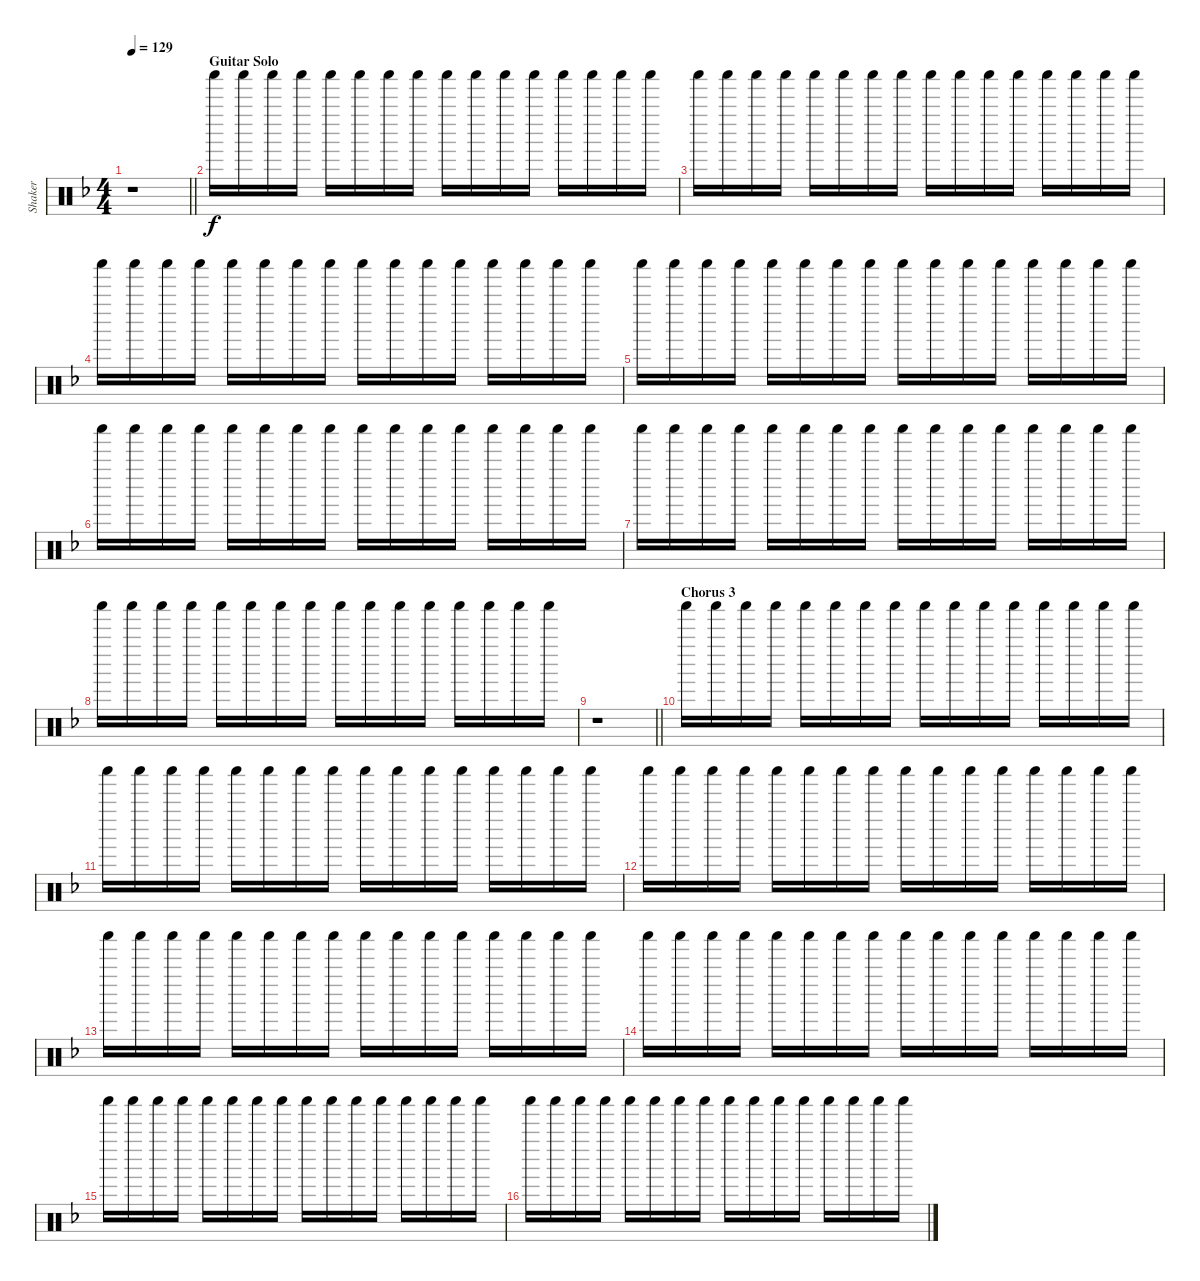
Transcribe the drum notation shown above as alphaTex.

\track ("Shaker" "Shaker") {instrument percussion}
\staff {score}
\articulation defaults
\ts (4 4)
\tempo 129
\clef neutral
\barLineRight lightlight
\ks dminor
r.1{dy f} |
\section ("" "Guitar Solo")
"Shaker (hit)".16 "Shaker (hit)".16 "Shaker (hit)".16 "Shaker (hit)".16 "Shaker (hit)".16 "Shaker (hit)".16 "Shaker (hit)".16 "Shaker (hit)".16 "Shaker (hit)".16 "Shaker (hit)".16 "Shaker (hit)".16 "Shaker (hit)".16 "Shaker (hit)".16 "Shaker (hit)".16 "Shaker (hit)".16 "Shaker (hit)".16 |
"Shaker (hit)".16 "Shaker (hit)".16 "Shaker (hit)".16 "Shaker (hit)".16 "Shaker (hit)".16 "Shaker (hit)".16 "Shaker (hit)".16 "Shaker (hit)".16 "Shaker (hit)".16 "Shaker (hit)".16 "Shaker (hit)".16 "Shaker (hit)".16 "Shaker (hit)".16 "Shaker (hit)".16 "Shaker (hit)".16 "Shaker (hit)".16 |
"Shaker (hit)".16 "Shaker (hit)".16 "Shaker (hit)".16 "Shaker (hit)".16 "Shaker (hit)".16 "Shaker (hit)".16 "Shaker (hit)".16 "Shaker (hit)".16 "Shaker (hit)".16 "Shaker (hit)".16 "Shaker (hit)".16 "Shaker (hit)".16 "Shaker (hit)".16 "Shaker (hit)".16 "Shaker (hit)".16 "Shaker (hit)".16 |
"Shaker (hit)".16 "Shaker (hit)".16 "Shaker (hit)".16 "Shaker (hit)".16 "Shaker (hit)".16 "Shaker (hit)".16 "Shaker (hit)".16 "Shaker (hit)".16 "Shaker (hit)".16 "Shaker (hit)".16 "Shaker (hit)".16 "Shaker (hit)".16 "Shaker (hit)".16 "Shaker (hit)".16 "Shaker (hit)".16 "Shaker (hit)".16 |
"Shaker (hit)".16 "Shaker (hit)".16 "Shaker (hit)".16 "Shaker (hit)".16 "Shaker (hit)".16 "Shaker (hit)".16 "Shaker (hit)".16 "Shaker (hit)".16 "Shaker (hit)".16 "Shaker (hit)".16 "Shaker (hit)".16 "Shaker (hit)".16 "Shaker (hit)".16 "Shaker (hit)".16 "Shaker (hit)".16 "Shaker (hit)".16 |
"Shaker (hit)".16 "Shaker (hit)".16 "Shaker (hit)".16 "Shaker (hit)".16 "Shaker (hit)".16 "Shaker (hit)".16 "Shaker (hit)".16 "Shaker (hit)".16 "Shaker (hit)".16 "Shaker (hit)".16 "Shaker (hit)".16 "Shaker (hit)".16 "Shaker (hit)".16 "Shaker (hit)".16 "Shaker (hit)".16 "Shaker (hit)".16 |
"Shaker (hit)".16 "Shaker (hit)".16 "Shaker (hit)".16 "Shaker (hit)".16 "Shaker (hit)".16 "Shaker (hit)".16 "Shaker (hit)".16 "Shaker (hit)".16 "Shaker (hit)".16 "Shaker (hit)".16 "Shaker (hit)".16 "Shaker (hit)".16 "Shaker (hit)".16 "Shaker (hit)".16 "Shaker (hit)".16 "Shaker (hit)".16 |
\barLineRight lightlight
r.1 |
\section ("" "Chorus 3")
"Shaker (hit)".16 "Shaker (hit)".16 "Shaker (hit)".16 "Shaker (hit)".16 "Shaker (hit)".16 "Shaker (hit)".16 "Shaker (hit)".16 "Shaker (hit)".16 "Shaker (hit)".16 "Shaker (hit)".16 "Shaker (hit)".16 "Shaker (hit)".16 "Shaker (hit)".16 "Shaker (hit)".16 "Shaker (hit)".16 "Shaker (hit)".16 |
"Shaker (hit)".16 "Shaker (hit)".16 "Shaker (hit)".16 "Shaker (hit)".16 "Shaker (hit)".16 "Shaker (hit)".16 "Shaker (hit)".16 "Shaker (hit)".16 "Shaker (hit)".16 "Shaker (hit)".16 "Shaker (hit)".16 "Shaker (hit)".16 "Shaker (hit)".16 "Shaker (hit)".16 "Shaker (hit)".16 "Shaker (hit)".16 |
"Shaker (hit)".16 "Shaker (hit)".16 "Shaker (hit)".16 "Shaker (hit)".16 "Shaker (hit)".16 "Shaker (hit)".16 "Shaker (hit)".16 "Shaker (hit)".16 "Shaker (hit)".16 "Shaker (hit)".16 "Shaker (hit)".16 "Shaker (hit)".16 "Shaker (hit)".16 "Shaker (hit)".16 "Shaker (hit)".16 "Shaker (hit)".16 |
"Shaker (hit)".16 "Shaker (hit)".16 "Shaker (hit)".16 "Shaker (hit)".16 "Shaker (hit)".16 "Shaker (hit)".16 "Shaker (hit)".16 "Shaker (hit)".16 "Shaker (hit)".16 "Shaker (hit)".16 "Shaker (hit)".16 "Shaker (hit)".16 "Shaker (hit)".16 "Shaker (hit)".16 "Shaker (hit)".16 "Shaker (hit)".16 |
"Shaker (hit)".16 "Shaker (hit)".16 "Shaker (hit)".16 "Shaker (hit)".16 "Shaker (hit)".16 "Shaker (hit)".16 "Shaker (hit)".16 "Shaker (hit)".16 "Shaker (hit)".16 "Shaker (hit)".16 "Shaker (hit)".16 "Shaker (hit)".16 "Shaker (hit)".16 "Shaker (hit)".16 "Shaker (hit)".16 "Shaker (hit)".16 |
"Shaker (hit)".16 "Shaker (hit)".16 "Shaker (hit)".16 "Shaker (hit)".16 "Shaker (hit)".16 "Shaker (hit)".16 "Shaker (hit)".16 "Shaker (hit)".16 "Shaker (hit)".16 "Shaker (hit)".16 "Shaker (hit)".16 "Shaker (hit)".16 "Shaker (hit)".16 "Shaker (hit)".16 "Shaker (hit)".16 "Shaker (hit)".16 |
"Shaker (hit)".16 "Shaker (hit)".16 "Shaker (hit)".16 "Shaker (hit)".16 "Shaker (hit)".16 "Shaker (hit)".16 "Shaker (hit)".16 "Shaker (hit)".16 "Shaker (hit)".16 "Shaker (hit)".16 "Shaker (hit)".16 "Shaker (hit)".16 "Shaker (hit)".16 "Shaker (hit)".16 "Shaker (hit)".16 "Shaker (hit)".16
